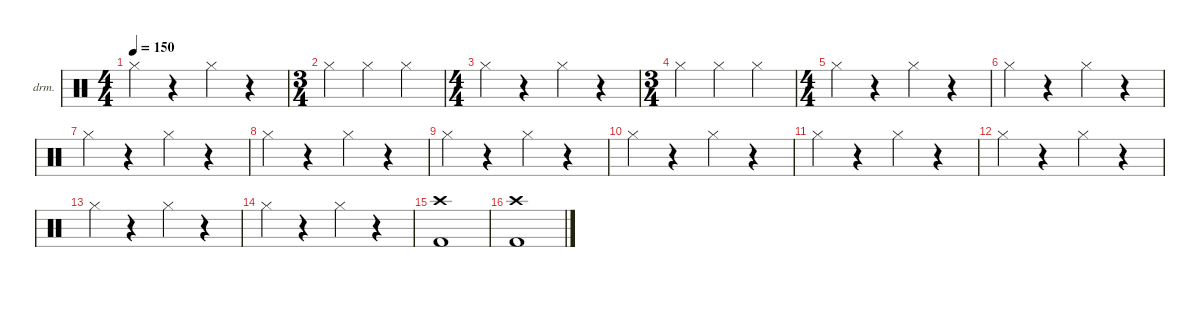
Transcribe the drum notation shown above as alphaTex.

\defaultSystemsLayout 4
\hideDynamics
\bracketExtendMode nobrackets
\firstSystemTrackNameOrientation horizontal
\otherSystemsTrackNameOrientation horizontal
\track ("Drumkit" "drm.") {instrument percussion}
\staff {score}
\articulation defaults
\ts (4 4)
\tempo 150
\clef neutral
\ks c "Hi-Hat (closed)".4{dy f}
r.4 "Hi-Hat (closed)".4 r.4 |
\ts (3 4)
\beaming (8 2 2 2)
"Hi-Hat (closed)".4 "Hi-Hat (closed)".4 "Hi-Hat (closed)".4 |
\ts (4 4)
\beaming (8 2 2 2 2)
"Hi-Hat (closed)".4 r.4 "Hi-Hat (closed)".4 r.4 |
\ts (3 4)
\beaming (8 2 2 2)
"Hi-Hat (closed)".4 "Hi-Hat (closed)".4 "Hi-Hat (closed)".4 |
\ts (4 4)
\beaming (8 2 2 2 2)
"Hi-Hat (closed)".4 r.4 "Hi-Hat (closed)".4 r.4 |
"Hi-Hat (closed)".4 r.4 "Hi-Hat (closed)".4 r.4 |
"Hi-Hat (closed)".4 r.4 "Hi-Hat (closed)".4 r.4 |
"Hi-Hat (closed)".4 r.4 "Hi-Hat (closed)".4 r.4 |
"Hi-Hat (closed)".4 r.4 "Hi-Hat (closed)".4 r.4 |
"Hi-Hat (closed)".4 r.4 "Hi-Hat (closed)".4 r.4 |
"Hi-Hat (closed)".4 r.4 "Hi-Hat (closed)".4 r.4 |
"Hi-Hat (closed)".4 r.4 "Hi-Hat (closed)".4 r.4 |
"Hi-Hat (closed)".4 r.4 "Hi-Hat (closed)".4 r.4 |
"Hi-Hat (closed)".4 r.4 "Hi-Hat (closed)".4 r.4 |
("Kick (hit) 2" "Crash high (hit)").1 |
("Kick (hit) 2" "Crash high (hit)").1
